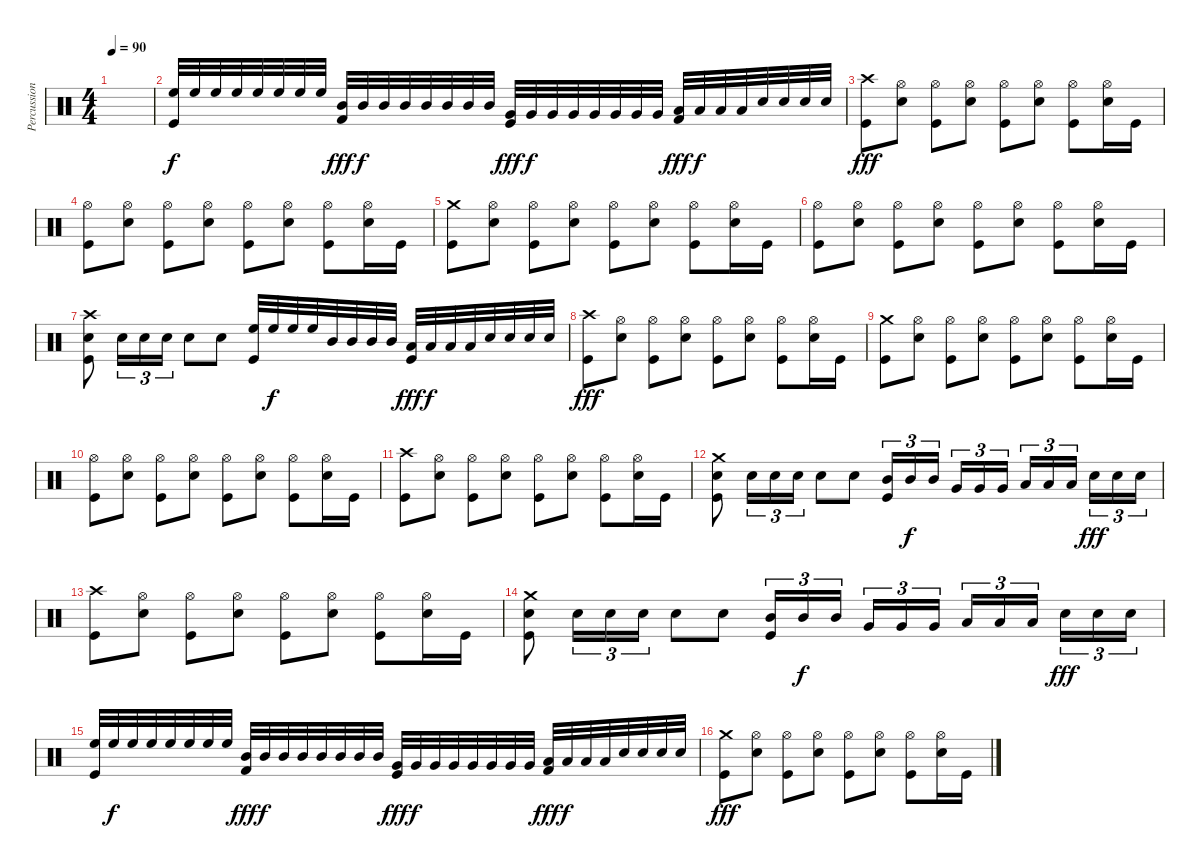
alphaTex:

\track ("Percussion" "Percussion") {instrument percussion}
\staff {score}
\articulation defaults
\ts (4 4)
\tempo 90
\clef neutral
\ks c
|
("High Floor Tom (hit)" "Kick (hit)").32 "High Floor Tom (hit)".32{dy f} "High Floor Tom (hit)".32 "High Floor Tom (hit)".32 "High Floor Tom (hit)".32 "High Floor Tom (hit)".32 "High Floor Tom (hit)".32 "High Floor Tom (hit)".32 ("Mid Tom (hit)" "Kick (hit) 2").32{dy fff} "Mid Tom (hit)".32{dy f} "Mid Tom (hit)".32 "Mid Tom (hit)".32 "Mid Tom (hit)".32 "Mid Tom (hit)".32 "Mid Tom (hit)".32 "Mid Tom (hit)".32 ("Very Low Tom (hit)" "Kick (hit)").32{dy fff} "Very Low Tom (hit)".32{dy f} "Very Low Tom (hit)".32 "Very Low Tom (hit)".32 "Very Low Tom (hit)".32 "Very Low Tom (hit)".32 "Very Low Tom (hit)".32 "Very Low Tom (hit)".32 ("Low Floor Tom (hit)" "Kick (hit) 2").32{dy fff} "Low Floor Tom (hit)".32{dy f} "Low Floor Tom (hit)".32 "Low Floor Tom (hit)".32 "Electric Snare (hit)".32 "Electric Snare (hit)".32 "Electric Snare (hit)".32 "Electric Snare (hit)".32 |
("Crash high (hit)" "Kick (hit)").8{dy fff} ("Hi-Hat (open)" "Electric Snare (hit)").8 ("Hi-Hat (open)" "Kick (hit)").8 ("Hi-Hat (open)" "Electric Snare (hit)").8 ("Hi-Hat (open)" "Kick (hit)").8 ("Hi-Hat (open)" "Electric Snare (hit)").8 ("Hi-Hat (open)" "Kick (hit)").8 ("Hi-Hat (open)" "Electric Snare (hit)").16 "Kick (hit)".16 |
("Hi-Hat (open)" "Kick (hit)").8 ("Hi-Hat (open)" "Electric Snare (hit)").8 ("Hi-Hat (open)" "Kick (hit)").8 ("Hi-Hat (open)" "Electric Snare (hit)").8 ("Hi-Hat (open)" "Kick (hit)").8 ("Hi-Hat (open)" "Electric Snare (hit)").8 ("Hi-Hat (open)" "Kick (hit)").8 ("Hi-Hat (open)" "Electric Snare (hit)").16 "Kick (hit)".16 |
("Crash medium (hit)" "Kick (hit)").8 ("Hi-Hat (open)" "Electric Snare (hit)").8 ("Hi-Hat (open)" "Kick (hit)").8 ("Hi-Hat (open)" "Electric Snare (hit)").8 ("Hi-Hat (open)" "Kick (hit)").8 ("Hi-Hat (open)" "Electric Snare (hit)").8 ("Hi-Hat (open)" "Kick (hit)").8 ("Hi-Hat (open)" "Electric Snare (hit)").16 "Kick (hit)".16 |
("Hi-Hat (open)" "Kick (hit)").8 ("Hi-Hat (open)" "Electric Snare (hit)").8 ("Hi-Hat (open)" "Kick (hit)").8 ("Hi-Hat (open)" "Electric Snare (hit)").8 ("Hi-Hat (open)" "Kick (hit)").8 ("Hi-Hat (open)" "Electric Snare (hit)").8 ("Hi-Hat (open)" "Kick (hit)").8 ("Hi-Hat (open)" "Electric Snare (hit)").16 "Kick (hit)".16 |
("Crash high (hit)" "Electric Snare (hit)" "Kick (hit)").8 "Electric Snare (hit)".16{tu (3 2)} "Electric Snare (hit)".16{tu (3 2)} "Electric Snare (hit)".16{tu (3 2)} "Electric Snare (hit)".8 "Electric Snare (hit)".8 ("High Floor Tom (hit)" "Kick (hit)").32 "High Floor Tom (hit)".32{dy f} "High Floor Tom (hit)".32 "High Floor Tom (hit)".32 "Mid Tom (hit)".32 "Mid Tom (hit)".32 "Mid Tom (hit)".32 "Mid Tom (hit)".32 ("Low Floor Tom (hit)" "Kick (hit)").32{dy fff} "Low Floor Tom (hit)".32{dy f} "Low Floor Tom (hit)".32 "Low Floor Tom (hit)".32 "Electric Snare (hit)".32 "Electric Snare (hit)".32 "Electric Snare (hit)".32 "Electric Snare (hit)".32 |
("Crash high (hit)" "Kick (hit)").8{dy fff} ("Hi-Hat (open)" "Electric Snare (hit)").8 ("Hi-Hat (open)" "Kick (hit)").8 ("Hi-Hat (open)" "Electric Snare (hit)").8 ("Hi-Hat (open)" "Kick (hit)").8 ("Hi-Hat (open)" "Electric Snare (hit)").8 ("Hi-Hat (open)" "Kick (hit)").8 ("Hi-Hat (open)" "Electric Snare (hit)").16 "Kick (hit)".16 |
("Crash medium (hit)" "Kick (hit)").8 ("Hi-Hat (open)" "Electric Snare (hit)").8 ("Hi-Hat (open)" "Kick (hit)").8 ("Hi-Hat (open)" "Electric Snare (hit)").8 ("Hi-Hat (open)" "Kick (hit)").8 ("Hi-Hat (open)" "Electric Snare (hit)").8 ("Hi-Hat (open)" "Kick (hit)").8 ("Hi-Hat (open)" "Electric Snare (hit)").16 "Kick (hit)".16 |
("Hi-Hat (open)" "Kick (hit)").8 ("Hi-Hat (open)" "Electric Snare (hit)").8 ("Hi-Hat (open)" "Kick (hit)").8 ("Hi-Hat (open)" "Electric Snare (hit)").8 ("Hi-Hat (open)" "Kick (hit)").8 ("Hi-Hat (open)" "Electric Snare (hit)").8 ("Hi-Hat (open)" "Kick (hit)").8 ("Hi-Hat (open)" "Electric Snare (hit)").16 "Kick (hit)".16 |
("Crash high (hit)" "Kick (hit)").8 ("Hi-Hat (open)" "Electric Snare (hit)").8 ("Hi-Hat (open)" "Kick (hit)").8 ("Hi-Hat (open)" "Electric Snare (hit)").8 ("Hi-Hat (open)" "Kick (hit)").8 ("Hi-Hat (open)" "Electric Snare (hit)").8 ("Hi-Hat (open)" "Kick (hit)").8 ("Hi-Hat (open)" "Electric Snare (hit)").16 "Kick (hit)".16 |
("Crash medium (hit)" "Electric Snare (hit)" "Kick (hit)").8 "Electric Snare (hit)".16{tu (3 2)} "Electric Snare (hit)".16{tu (3 2)} "Electric Snare (hit)".16{tu (3 2)} "Electric Snare (hit)".8 "Electric Snare (hit)".8 ("Mid Tom (hit)" "Kick (hit)").16{tu (3 2)} "Mid Tom (hit)".16{tu (3 2) dy f} "Mid Tom (hit)".16{tu (3 2)} "Very Low Tom (hit)".16{tu (3 2)} "Very Low Tom (hit)".16{tu (3 2)} "Very Low Tom (hit)".16{tu (3 2)} "Low Floor Tom (hit)".16{tu (3 2)} "Low Floor Tom (hit)".16{tu (3 2)} "Low Floor Tom (hit)".16{tu (3 2)} "Electric Snare (hit)".16{tu (3 2) dy fff} "Electric Snare (hit)".16{tu (3 2)} "Electric Snare (hit)".16{tu (3 2)} |
("Crash high (hit)" "Kick (hit)").8 ("Hi-Hat (open)" "Electric Snare (hit)").8 ("Hi-Hat (open)" "Kick (hit)").8 ("Hi-Hat (open)" "Electric Snare (hit)").8 ("Hi-Hat (open)" "Kick (hit)").8 ("Hi-Hat (open)" "Electric Snare (hit)").8 ("Hi-Hat (open)" "Kick (hit)").8 ("Hi-Hat (open)" "Electric Snare (hit)").16 "Kick (hit)".16 |
("Crash medium (hit)" "Electric Snare (hit)" "Kick (hit)").8 "Electric Snare (hit)".16{tu (3 2)} "Electric Snare (hit)".16{tu (3 2)} "Electric Snare (hit)".16{tu (3 2)} "Electric Snare (hit)".8 "Electric Snare (hit)".8 ("Mid Tom (hit)" "Kick (hit)").16{tu (3 2)} "Mid Tom (hit)".16{tu (3 2) dy f} "Mid Tom (hit)".16{tu (3 2)} "Very Low Tom (hit)".16{tu (3 2)} "Very Low Tom (hit)".16{tu (3 2)} "Very Low Tom (hit)".16{tu (3 2)} "Low Floor Tom (hit)".16{tu (3 2)} "Low Floor Tom (hit)".16{tu (3 2)} "Low Floor Tom (hit)".16{tu (3 2)} "Electric Snare (hit)".16{tu (3 2) dy fff} "Electric Snare (hit)".16{tu (3 2)} "Electric Snare (hit)".16{tu (3 2)} |
("High Floor Tom (hit)" "Kick (hit)").32 "High Floor Tom (hit)".32{dy f} "High Floor Tom (hit)".32 "High Floor Tom (hit)".32 "High Floor Tom (hit)".32 "High Floor Tom (hit)".32 "High Floor Tom (hit)".32 "High Floor Tom (hit)".32 ("Mid Tom (hit)" "Kick (hit) 2").32{dy fff} "Mid Tom (hit)".32{dy f} "Mid Tom (hit)".32 "Mid Tom (hit)".32 "Mid Tom (hit)".32 "Mid Tom (hit)".32 "Mid Tom (hit)".32 "Mid Tom (hit)".32 ("Very Low Tom (hit)" "Kick (hit)").32{dy fff} "Very Low Tom (hit)".32{dy f} "Very Low Tom (hit)".32 "Very Low Tom (hit)".32 "Very Low Tom (hit)".32 "Very Low Tom (hit)".32 "Very Low Tom (hit)".32 "Very Low Tom (hit)".32 ("Low Floor Tom (hit)" "Kick (hit) 2").32{dy fff} "Low Floor Tom (hit)".32{dy f} "Low Floor Tom (hit)".32 "Low Floor Tom (hit)".32 "Electric Snare (hit)".32 "Electric Snare (hit)".32 "Electric Snare (hit)".32 "Electric Snare (hit)".32 |
("Crash medium (hit)" "Kick (hit)").8{dy fff} ("Hi-Hat (open)" "Electric Snare (hit)").8 ("Hi-Hat (open)" "Kick (hit)").8 ("Hi-Hat (open)" "Electric Snare (hit)").8 ("Hi-Hat (open)" "Kick (hit)").8 ("Hi-Hat (open)" "Electric Snare (hit)").8 ("Hi-Hat (open)" "Kick (hit)").8 ("Hi-Hat (open)" "Electric Snare (hit)").16 "Kick (hit)".16
